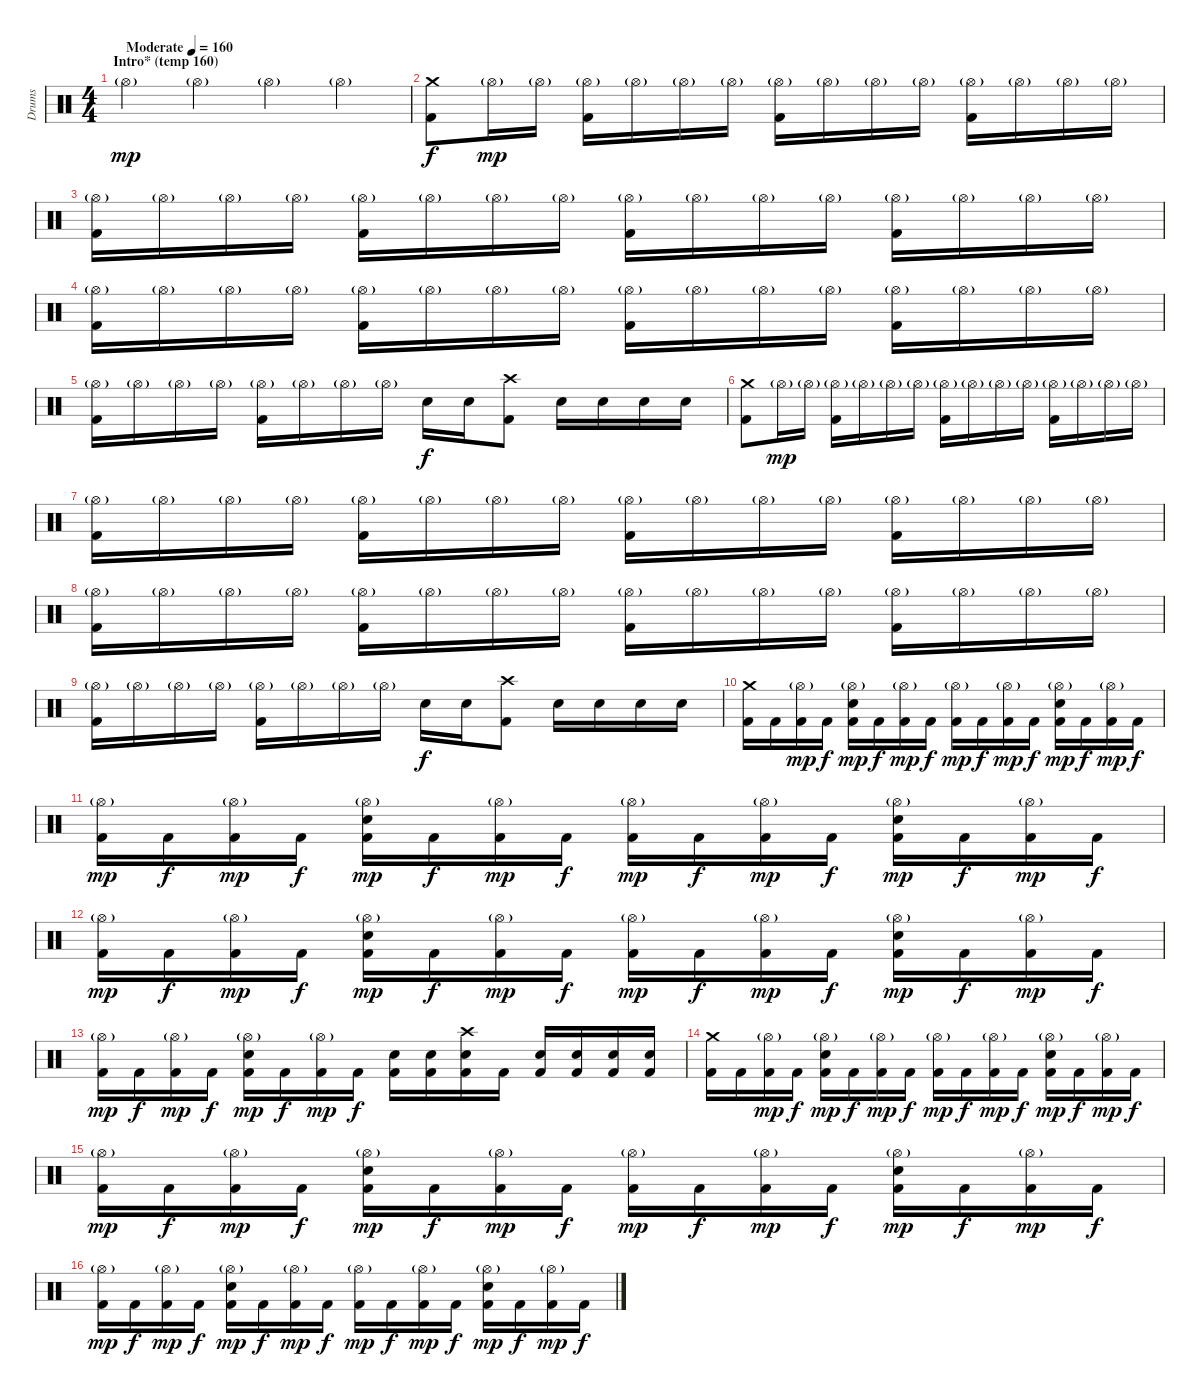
\track ("Drums" "Drums") {instrument percussion}
\staff {score}
\articulation defaults
\ts (4 4)
\section ("" "Intro* (temp 160)")
\tempo (160 "Moderate")
\clef neutral
\ks c "Hi-Hat (open)"{g}.4{dy mp} "Hi-Hat (open)"{g}.4 "Hi-Hat (open)"{g}.4 "Hi-Hat (open)"{g}.4
|
("Crash medium (hit)" "Kick (hit) 2").8{dy f} "Hi-Hat (open)"{g}.16{dy mp} "Hi-Hat (open)"{g}.16 ("Hi-Hat (open)"{g} "Kick (hit) 2").16 "Hi-Hat (open)"{g}.16 "Hi-Hat (open)"{g}.16 "Hi-Hat (open)"{g}.16 ("Hi-Hat (open)"{g} "Kick (hit) 2").16 "Hi-Hat (open)"{g}.16 "Hi-Hat (open)"{g}.16 "Hi-Hat (open)"{g}.16 ("Hi-Hat (open)"{g} "Kick (hit) 2").16 "Hi-Hat (open)"{g}.16 "Hi-Hat (open)"{g}.16 "Hi-Hat (open)"{g}.16 |
("Hi-Hat (open)"{g} "Kick (hit) 2").16 "Hi-Hat (open)"{g}.16 "Hi-Hat (open)"{g}.16 "Hi-Hat (open)"{g}.16 ("Hi-Hat (open)"{g} "Kick (hit) 2").16 "Hi-Hat (open)"{g}.16 "Hi-Hat (open)"{g}.16 "Hi-Hat (open)"{g}.16 ("Hi-Hat (open)"{g} "Kick (hit) 2").16 "Hi-Hat (open)"{g}.16 "Hi-Hat (open)"{g}.16 "Hi-Hat (open)"{g}.16 ("Hi-Hat (open)"{g} "Kick (hit) 2").16 "Hi-Hat (open)"{g}.16 "Hi-Hat (open)"{g}.16 "Hi-Hat (open)"{g}.16 |
("Hi-Hat (open)"{g} "Kick (hit) 2").16 "Hi-Hat (open)"{g}.16 "Hi-Hat (open)"{g}.16 "Hi-Hat (open)"{g}.16 ("Hi-Hat (open)"{g} "Kick (hit) 2").16 "Hi-Hat (open)"{g}.16 "Hi-Hat (open)"{g}.16 "Hi-Hat (open)"{g}.16 ("Hi-Hat (open)"{g} "Kick (hit) 2").16 "Hi-Hat (open)"{g}.16 "Hi-Hat (open)"{g}.16 "Hi-Hat (open)"{g}.16 ("Hi-Hat (open)"{g} "Kick (hit) 2").16 "Hi-Hat (open)"{g}.16 "Hi-Hat (open)"{g}.16 "Hi-Hat (open)"{g}.16 |
("Hi-Hat (open)"{g} "Kick (hit) 2").16 "Hi-Hat (open)"{g}.16 "Hi-Hat (open)"{g}.16 "Hi-Hat (open)"{g}.16 ("Hi-Hat (open)"{g} "Kick (hit) 2").16 "Hi-Hat (open)"{g}.16 "Hi-Hat (open)"{g}.16 "Hi-Hat (open)"{g}.16 "Electric Snare (hit)".16{dy f} "Electric Snare (hit)".16 ("Crash high (hit)" "Kick (hit) 2").8 "Electric Snare (hit)".16 "Electric Snare (hit)".16 "Electric Snare (hit)".16 "Electric Snare (hit)".16 |
("Crash medium (hit)" "Kick (hit) 2").8 "Hi-Hat (open)"{g}.16{dy mp} "Hi-Hat (open)"{g}.16 ("Hi-Hat (open)"{g} "Kick (hit) 2").16 "Hi-Hat (open)"{g}.16 "Hi-Hat (open)"{g}.16 "Hi-Hat (open)"{g}.16 ("Hi-Hat (open)"{g} "Kick (hit) 2").16 "Hi-Hat (open)"{g}.16 "Hi-Hat (open)"{g}.16 "Hi-Hat (open)"{g}.16 ("Hi-Hat (open)"{g} "Kick (hit) 2").16 "Hi-Hat (open)"{g}.16 "Hi-Hat (open)"{g}.16 "Hi-Hat (open)"{g}.16 |
("Hi-Hat (open)"{g} "Kick (hit) 2").16 "Hi-Hat (open)"{g}.16 "Hi-Hat (open)"{g}.16 "Hi-Hat (open)"{g}.16 ("Hi-Hat (open)"{g} "Kick (hit) 2").16 "Hi-Hat (open)"{g}.16 "Hi-Hat (open)"{g}.16 "Hi-Hat (open)"{g}.16 ("Hi-Hat (open)"{g} "Kick (hit) 2").16 "Hi-Hat (open)"{g}.16 "Hi-Hat (open)"{g}.16 "Hi-Hat (open)"{g}.16 ("Hi-Hat (open)"{g} "Kick (hit) 2").16 "Hi-Hat (open)"{g}.16 "Hi-Hat (open)"{g}.16 "Hi-Hat (open)"{g}.16 |
("Hi-Hat (open)"{g} "Kick (hit) 2").16 "Hi-Hat (open)"{g}.16 "Hi-Hat (open)"{g}.16 "Hi-Hat (open)"{g}.16 ("Hi-Hat (open)"{g} "Kick (hit) 2").16 "Hi-Hat (open)"{g}.16 "Hi-Hat (open)"{g}.16 "Hi-Hat (open)"{g}.16 ("Hi-Hat (open)"{g} "Kick (hit) 2").16 "Hi-Hat (open)"{g}.16 "Hi-Hat (open)"{g}.16 "Hi-Hat (open)"{g}.16 ("Hi-Hat (open)"{g} "Kick (hit) 2").16 "Hi-Hat (open)"{g}.16 "Hi-Hat (open)"{g}.16 "Hi-Hat (open)"{g}.16 |
("Hi-Hat (open)"{g} "Kick (hit) 2").16 "Hi-Hat (open)"{g}.16 "Hi-Hat (open)"{g}.16 "Hi-Hat (open)"{g}.16 ("Hi-Hat (open)"{g} "Kick (hit) 2").16 "Hi-Hat (open)"{g}.16 "Hi-Hat (open)"{g}.16 "Hi-Hat (open)"{g}.16 "Electric Snare (hit)".16{dy f} "Electric Snare (hit)".16 ("Crash high (hit)" "Kick (hit) 2").8 "Electric Snare (hit)".16 "Electric Snare (hit)".16 "Electric Snare (hit)".16 "Electric Snare (hit)".16 |
("Crash medium (hit)" "Kick (hit) 2").16 "Kick (hit) 2".16 ("Hi-Hat (open)"{g} "Kick (hit) 2").16{dy mp} "Kick (hit) 2".16{dy f} ("Hi-Hat (open)"{g} "Electric Snare (hit)" "Kick (hit) 2").16{dy mp} "Kick (hit) 2".16{dy f} ("Hi-Hat (open)"{g} "Kick (hit) 2").16{dy mp} "Kick (hit) 2".16{dy f} ("Hi-Hat (open)"{g} "Kick (hit) 2").16{dy mp} "Kick (hit) 2".16{dy f} ("Hi-Hat (open)"{g} "Kick (hit) 2").16{dy mp} "Kick (hit) 2".16{dy f} ("Hi-Hat (open)"{g} "Electric Snare (hit)" "Kick (hit) 2").16{dy mp} "Kick (hit) 2".16{dy f} ("Hi-Hat (open)"{g} "Kick (hit) 2").16{dy mp} "Kick (hit) 2".16{dy f} |
("Hi-Hat (open)"{g} "Kick (hit) 2").16{dy mp} "Kick (hit) 2".16{dy f} ("Hi-Hat (open)"{g} "Kick (hit) 2").16{dy mp} "Kick (hit) 2".16{dy f} ("Hi-Hat (open)"{g} "Electric Snare (hit)" "Kick (hit) 2").16{dy mp} "Kick (hit) 2".16{dy f} ("Hi-Hat (open)"{g} "Kick (hit) 2").16{dy mp} "Kick (hit) 2".16{dy f} ("Hi-Hat (open)"{g} "Kick (hit) 2").16{dy mp} "Kick (hit) 2".16{dy f} ("Hi-Hat (open)"{g} "Kick (hit) 2").16{dy mp} "Kick (hit) 2".16{dy f} ("Hi-Hat (open)"{g} "Electric Snare (hit)" "Kick (hit) 2").16{dy mp} "Kick (hit) 2".16{dy f} ("Hi-Hat (open)"{g} "Kick (hit) 2").16{dy mp} "Kick (hit) 2".16{dy f} |
("Hi-Hat (open)"{g} "Kick (hit) 2").16{dy mp} "Kick (hit) 2".16{dy f} ("Hi-Hat (open)"{g} "Kick (hit) 2").16{dy mp} "Kick (hit) 2".16{dy f} ("Hi-Hat (open)"{g} "Electric Snare (hit)" "Kick (hit) 2").16{dy mp} "Kick (hit) 2".16{dy f} ("Hi-Hat (open)"{g} "Kick (hit) 2").16{dy mp} "Kick (hit) 2".16{dy f} ("Hi-Hat (open)"{g} "Kick (hit) 2").16{dy mp} "Kick (hit) 2".16{dy f} ("Hi-Hat (open)"{g} "Kick (hit) 2").16{dy mp} "Kick (hit) 2".16{dy f} ("Hi-Hat (open)"{g} "Electric Snare (hit)" "Kick (hit) 2").16{dy mp} "Kick (hit) 2".16{dy f} ("Hi-Hat (open)"{g} "Kick (hit) 2").16{dy mp} "Kick (hit) 2".16{dy f} |
("Hi-Hat (open)"{g} "Kick (hit) 2").16{dy mp} "Kick (hit) 2".16{dy f} ("Hi-Hat (open)"{g} "Kick (hit) 2").16{dy mp} "Kick (hit) 2".16{dy f} ("Hi-Hat (open)"{g} "Electric Snare (hit)" "Kick (hit) 2").16{dy mp} "Kick (hit) 2".16{dy f} ("Hi-Hat (open)"{g} "Kick (hit) 2").16{dy mp} "Kick (hit) 2".16{dy f} ("Electric Snare (hit)" "Kick (hit) 2").16 ("Electric Snare (hit)" "Kick (hit) 2").16 ("Crash high (hit)" "Electric Snare (hit)" "Kick (hit) 2").16 "Kick (hit) 2".16 ("Electric Snare (hit)" "Kick (hit) 2").16 ("Electric Snare (hit)" "Kick (hit) 2").16 ("Electric Snare (hit)" "Kick (hit) 2").16 ("Electric Snare (hit)" "Kick (hit) 2").16 |
("Crash medium (hit)" "Kick (hit) 2").16 "Kick (hit) 2".16 ("Hi-Hat (open)"{g} "Kick (hit) 2").16{dy mp} "Kick (hit) 2".16{dy f} ("Hi-Hat (open)"{g} "Electric Snare (hit)" "Kick (hit) 2").16{dy mp} "Kick (hit) 2".16{dy f} ("Hi-Hat (open)"{g} "Kick (hit) 2").16{dy mp} "Kick (hit) 2".16{dy f} ("Hi-Hat (open)"{g} "Kick (hit) 2").16{dy mp} "Kick (hit) 2".16{dy f} ("Hi-Hat (open)"{g} "Kick (hit) 2").16{dy mp} "Kick (hit) 2".16{dy f} ("Hi-Hat (open)"{g} "Electric Snare (hit)" "Kick (hit) 2").16{dy mp} "Kick (hit) 2".16{dy f} ("Hi-Hat (open)"{g} "Kick (hit) 2").16{dy mp} "Kick (hit) 2".16{dy f} |
("Hi-Hat (open)"{g} "Kick (hit) 2").16{dy mp} "Kick (hit) 2".16{dy f} ("Hi-Hat (open)"{g} "Kick (hit) 2").16{dy mp} "Kick (hit) 2".16{dy f} ("Hi-Hat (open)"{g} "Electric Snare (hit)" "Kick (hit) 2").16{dy mp} "Kick (hit) 2".16{dy f} ("Hi-Hat (open)"{g} "Kick (hit) 2").16{dy mp} "Kick (hit) 2".16{dy f} ("Hi-Hat (open)"{g} "Kick (hit) 2").16{dy mp} "Kick (hit) 2".16{dy f} ("Hi-Hat (open)"{g} "Kick (hit) 2").16{dy mp} "Kick (hit) 2".16{dy f} ("Hi-Hat (open)"{g} "Electric Snare (hit)" "Kick (hit) 2").16{dy mp} "Kick (hit) 2".16{dy f} ("Hi-Hat (open)"{g} "Kick (hit) 2").16{dy mp} "Kick (hit) 2".16{dy f} |
("Hi-Hat (open)"{g} "Kick (hit) 2").16{dy mp} "Kick (hit) 2".16{dy f} ("Hi-Hat (open)"{g} "Kick (hit) 2").16{dy mp} "Kick (hit) 2".16{dy f} ("Hi-Hat (open)"{g} "Electric Snare (hit)" "Kick (hit) 2").16{dy mp} "Kick (hit) 2".16{dy f} ("Hi-Hat (open)"{g} "Kick (hit) 2").16{dy mp} "Kick (hit) 2".16{dy f} ("Hi-Hat (open)"{g} "Kick (hit) 2").16{dy mp} "Kick (hit) 2".16{dy f} ("Hi-Hat (open)"{g} "Kick (hit) 2").16{dy mp} "Kick (hit) 2".16{dy f} ("Hi-Hat (open)"{g} "Electric Snare (hit)" "Kick (hit) 2").16{dy mp} "Kick (hit) 2".16{dy f} ("Hi-Hat (open)"{g} "Kick (hit) 2").16{dy mp} "Kick (hit) 2".16{dy f}
